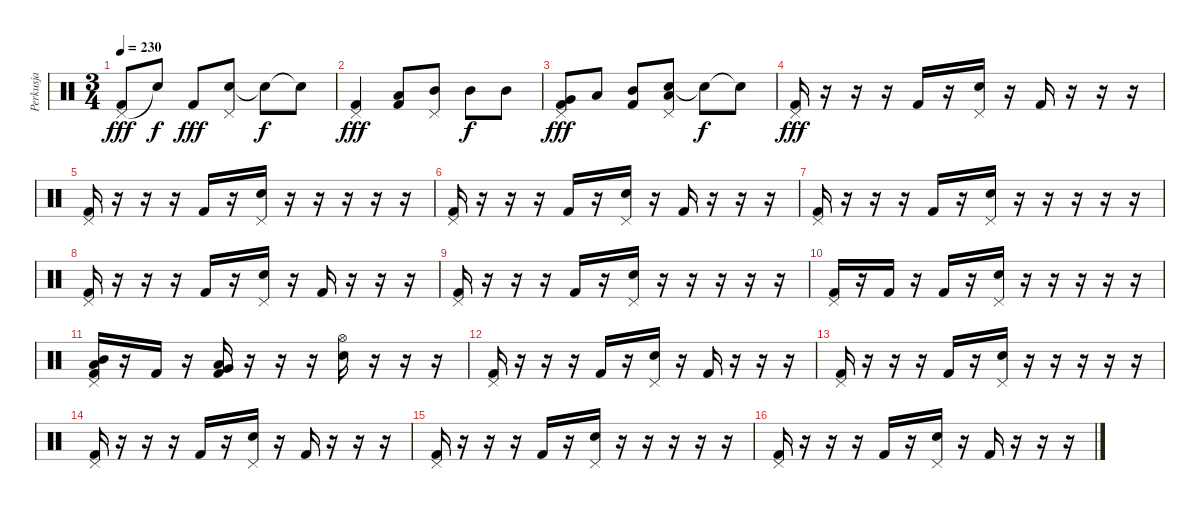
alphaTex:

\track ("Perkusja" "Perkusja") {instrument percussion}
\staff {score}
\articulation defaults
\ts (3 4)
\tempo 230
\clef neutral
\ks c
("Pedal Hi-Hat (hit)" "Kick (hit) 2").8{dy fff} "Snare (hit)"{t}.8{dy f} "Kick (hit) 2".8{dy fff} ("Snare (hit) 2" "Pedal Hi-Hat (hit)").8 "Snare (hit)"{t}.8{dy f} "Snare (hit)"{t}.8 |
("Pedal Hi-Hat (hit)" "Kick (hit) 2").4{dy fff} ("Low Tom (hit)" "Kick (hit) 2").8 ("Mid Tom (hit)" "Pedal Hi-Hat (hit)").8 "Mid Tom (hit)".8{dy f} "Mid Tom (hit)".8 |
("Very Low Tom (hit)" "Pedal Hi-Hat (hit)" "Kick (hit) 2").8{dy fff} "Low Tom (hit)".8 ("Mid Tom (hit)" "Kick (hit) 2").8 ("Snare (hit) 2" "Low Tom (hit)" "Pedal Hi-Hat (hit)").8 "Snare (hit)"{t}.8{dy f} "Snare (hit)"{t}.8 |
("Pedal Hi-Hat (hit)" "Kick (hit) 2").16{dy fff} r.16 r.16 r.16 "Kick (hit) 2".16 r.16 ("Snare (hit) 2" "Pedal Hi-Hat (hit)").16 r.16 "Kick (hit) 2".16 r.16 r.16 r.16 |
("Pedal Hi-Hat (hit)" "Kick (hit) 2").16 r.16 r.16 r.16 "Kick (hit) 2".16 r.16 ("Snare (hit) 2" "Pedal Hi-Hat (hit)").16 r.16 r.16 r.16 r.16 r.16 |
("Pedal Hi-Hat (hit)" "Kick (hit) 2").16 r.16 r.16 r.16 "Kick (hit) 2".16 r.16 ("Snare (hit) 2" "Pedal Hi-Hat (hit)").16 r.16 "Kick (hit) 2".16 r.16 r.16 r.16 |
("Pedal Hi-Hat (hit)" "Kick (hit) 2").16 r.16 r.16 r.16 "Kick (hit) 2".16 r.16 ("Snare (hit) 2" "Pedal Hi-Hat (hit)").16 r.16 r.16 r.16 r.16 r.16 |
("Pedal Hi-Hat (hit)" "Kick (hit) 2").16 r.16 r.16 r.16 "Kick (hit) 2".16 r.16 ("Snare (hit) 2" "Pedal Hi-Hat (hit)").16 r.16 "Kick (hit) 2".16 r.16 r.16 r.16 |
("Pedal Hi-Hat (hit)" "Kick (hit) 2").16 r.16 r.16 r.16 "Kick (hit) 2".16 r.16 ("Snare (hit) 2" "Pedal Hi-Hat (hit)").16 r.16 r.16 r.16 r.16 r.16 |
("Pedal Hi-Hat (hit)" "Kick (hit) 2").16 r.16 "Kick (hit) 2".16 r.16 "Kick (hit) 2".16 r.16 ("Snare (hit) 2" "Pedal Hi-Hat (hit)").16 r.16 r.16 r.16 r.16 r.16 |
("Mid Tom (hit)" "Low Tom (hit)" "Pedal Hi-Hat (hit)" "Kick (hit) 2").16 r.16 "Kick (hit) 2".16 r.16 ("Very Low Tom (hit)" "Low Tom (hit)" "Kick (hit) 2").16 r.16 r.16 r.16 ("Snare (hit) 2" "Hi-Hat (open)").16 r.16 r.16 r.16 |
("Pedal Hi-Hat (hit)" "Kick (hit) 2").16 r.16 r.16 r.16 "Kick (hit) 2".16 r.16 ("Snare (hit) 2" "Pedal Hi-Hat (hit)").16 r.16 "Kick (hit) 2".16 r.16 r.16 r.16 |
("Pedal Hi-Hat (hit)" "Kick (hit) 2").16 r.16 r.16 r.16 "Kick (hit) 2".16 r.16 ("Snare (hit) 2" "Pedal Hi-Hat (hit)").16 r.16 r.16 r.16 r.16 r.16 |
("Pedal Hi-Hat (hit)" "Kick (hit) 2").16 r.16 r.16 r.16 "Kick (hit) 2".16 r.16 ("Snare (hit) 2" "Pedal Hi-Hat (hit)").16 r.16 "Kick (hit) 2".16 r.16 r.16 r.16 |
("Pedal Hi-Hat (hit)" "Kick (hit) 2").16 r.16 r.16 r.16 "Kick (hit) 2".16 r.16 ("Snare (hit) 2" "Pedal Hi-Hat (hit)").16 r.16 r.16 r.16 r.16 r.16 |
("Pedal Hi-Hat (hit)" "Kick (hit) 2").16 r.16 r.16 r.16 "Kick (hit) 2".16 r.16 ("Snare (hit) 2" "Pedal Hi-Hat (hit)").16 r.16 "Kick (hit) 2".16 r.16 r.16 r.16
